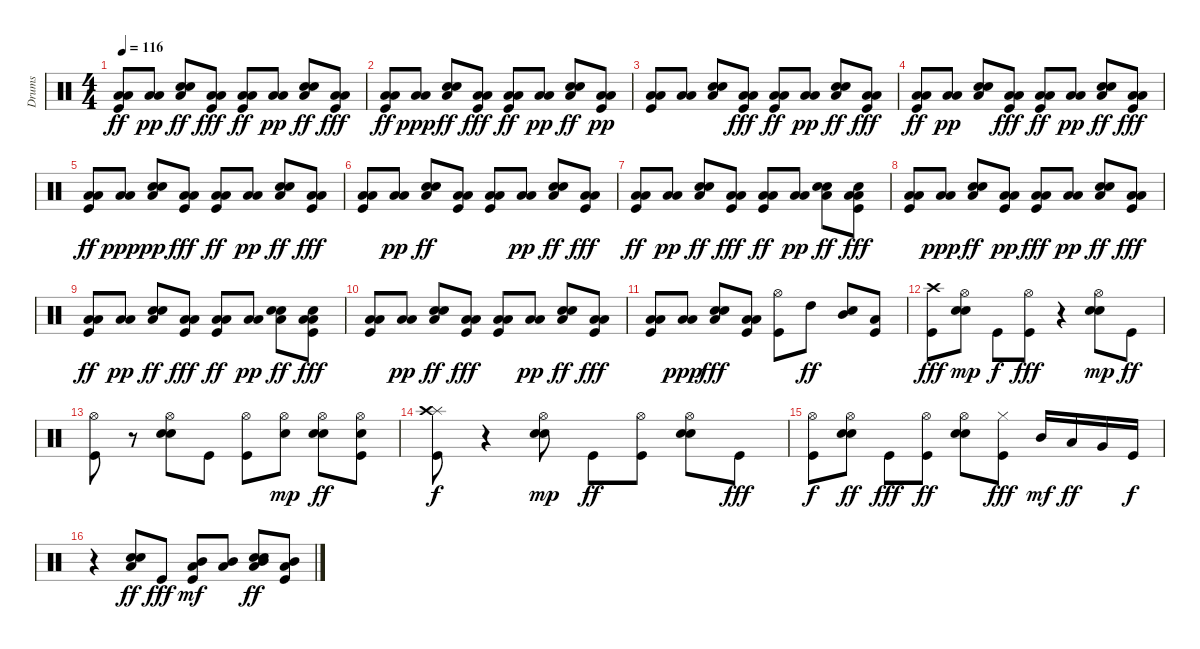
\track ("Drums" "Drums") {instrument percussion}
\staff {score}
\articulation defaults
\ts (4 4)
\tempo 116
\clef neutral
\ks c
("Low Tom (hit)" "Low Floor Tom (hit)" "Kick (hit)").8{dy ff} ("Low Tom (hit)" "Low Floor Tom (hit)").8{dy pp} ("Low Floor Tom (hit)" "Hand Clap (hit)" "Snare (hit) 2").8{dy ff} ("Low Tom (hit)" "Low Floor Tom (hit)" "Kick (hit)").8{dy fff} ("Low Tom (hit)" "Low Floor Tom (hit)" "Kick (hit)").8{dy ff} ("Low Floor Tom (hit)" "Low Tom (hit)").8{dy pp} ("Low Floor Tom (hit)" "Hand Clap (hit)" "Snare (hit) 2").8{dy ff} ("Low Tom (hit)" "Low Floor Tom (hit)" "Kick (hit)").8{dy fff} |
("Low Tom (hit)" "Low Floor Tom (hit)" "Kick (hit)").8{dy ff} ("Low Floor Tom (hit)" "Low Tom (hit)").8{dy ppp} ("Snare (hit) 2" "Low Floor Tom (hit)" "Hand Clap (hit)").8{dy ff} ("Low Tom (hit)" "Low Floor Tom (hit)" "Kick (hit)").8{dy fff} ("Low Tom (hit)" "Low Floor Tom (hit)" "Kick (hit)").8{dy ff} ("Low Tom (hit)" "Low Floor Tom (hit)").8{dy pp} ("Snare (hit) 2" "Low Floor Tom (hit)" "Hand Clap (hit)").8{dy ff} ("Kick (hit)" "Low Tom (hit)" "Low Floor Tom (hit)").8{dy pp} |
("Kick (hit)" "Low Tom (hit)" "Low Floor Tom (hit)").8 ("Low Tom (hit)" "Low Floor Tom (hit)").8 ("Hand Clap (hit)" "Snare (hit) 2" "Low Floor Tom (hit)").8 ("Low Tom (hit)" "Low Floor Tom (hit)" "Kick (hit)").8{dy fff} ("Low Tom (hit)" "Low Floor Tom (hit)" "Kick (hit)").8{dy ff} ("Low Tom (hit)" "Low Floor Tom (hit)").8{dy pp} ("Low Floor Tom (hit)" "Hand Clap (hit)" "Snare (hit) 2").8{dy ff} ("Low Tom (hit)" "Low Floor Tom (hit)" "Kick (hit)").8{dy fff} |
("Low Tom (hit)" "Low Floor Tom (hit)" "Kick (hit)").8{dy ff} ("Low Tom (hit)" "Low Floor Tom (hit)").8{dy pp} ("Hand Clap (hit)" "Snare (hit) 2" "Low Floor Tom (hit)").8 ("Low Tom (hit)" "Low Floor Tom (hit)" "Kick (hit)").8{dy fff} ("Low Tom (hit)" "Low Floor Tom (hit)" "Kick (hit)").8{dy ff} ("Low Floor Tom (hit)" "Low Tom (hit)").8{dy pp} ("Low Floor Tom (hit)" "Hand Clap (hit)" "Snare (hit) 2").8{dy ff} ("Low Tom (hit)" "Low Floor Tom (hit)" "Kick (hit)").8{dy fff} |
("Low Tom (hit)" "Low Floor Tom (hit)" "Kick (hit)").8{dy ff} ("Low Floor Tom (hit)" "Low Tom (hit)").8{dy ppp} ("Hand Clap (hit)" "Snare (hit) 2" "Low Floor Tom (hit)").8{dy pp} ("Low Tom (hit)" "Low Floor Tom (hit)" "Kick (hit)").8{dy fff} ("Low Tom (hit)" "Low Floor Tom (hit)" "Kick (hit)").8{dy ff} ("Low Tom (hit)" "Low Floor Tom (hit)").8{dy pp} ("Low Floor Tom (hit)" "Hand Clap (hit)" "Snare (hit) 2").8{dy ff} ("Low Tom (hit)" "Low Floor Tom (hit)" "Kick (hit)").8{dy fff} |
("Low Tom (hit)" "Low Floor Tom (hit)" "Kick (hit)").8 ("Low Tom (hit)" "Low Floor Tom (hit)").8{dy pp} ("Snare (hit) 2" "Low Floor Tom (hit)" "Hand Clap (hit)").8{dy ff} ("Low Tom (hit)" "Low Floor Tom (hit)" "Kick (hit)").8 ("Low Tom (hit)" "Low Floor Tom (hit)" "Kick (hit)").8 ("Low Tom (hit)" "Low Floor Tom (hit)").8{dy pp} ("Low Floor Tom (hit)" "Hand Clap (hit)" "Snare (hit) 2").8{dy ff} ("Low Tom (hit)" "Low Floor Tom (hit)" "Kick (hit)").8{dy fff} |
("Low Tom (hit)" "Low Floor Tom (hit)" "Kick (hit)").8{dy ff} ("Low Tom (hit)" "Low Floor Tom (hit)").8{dy pp} ("Snare (hit) 2" "Low Floor Tom (hit)" "Hand Clap (hit)").8{dy ff} ("Low Tom (hit)" "Low Floor Tom (hit)" "Kick (hit)").8{dy fff} ("Low Tom (hit)" "Low Floor Tom (hit)" "Kick (hit)").8{dy ff} ("Low Floor Tom (hit)" "Low Tom (hit)").8{dy pp} ("Low Floor Tom (hit)" "Hand Clap (hit)" "Snare (hit) 2").8{dy ff} ("Snare (hit) 2" "Low Tom (hit)" "Low Floor Tom (hit)" "Kick (hit)").8{dy fff} |
("Low Tom (hit)" "Low Floor Tom (hit)" "Kick (hit)").8 ("Low Floor Tom (hit)" "Low Tom (hit)").8{dy ppp} ("Snare (hit) 2" "Low Floor Tom (hit)" "Hand Clap (hit)").8{dy ff} ("Kick (hit)" "Low Tom (hit)" "Low Floor Tom (hit)").8{dy pp} ("Low Tom (hit)" "Low Floor Tom (hit)" "Kick (hit)").8{dy fff} ("Low Tom (hit)" "Low Floor Tom (hit)").8{dy pp} ("Snare (hit) 2" "Low Floor Tom (hit)" "Hand Clap (hit)").8{dy ff} ("Low Tom (hit)" "Low Floor Tom (hit)" "Kick (hit)").8{dy fff} |
("Low Tom (hit)" "Low Floor Tom (hit)" "Kick (hit)").8{dy ff} ("Low Tom (hit)" "Low Floor Tom (hit)").8{dy pp} ("Snare (hit) 2" "Low Floor Tom (hit)" "Hand Clap (hit)").8{dy ff} ("Low Tom (hit)" "Low Floor Tom (hit)" "Kick (hit)").8{dy fff} ("Low Tom (hit)" "Low Floor Tom (hit)" "Kick (hit)").8{dy ff} ("Low Tom (hit)" "Low Floor Tom (hit)").8{dy pp} ("Low Floor Tom (hit)" "Hand Clap (hit)" "Snare (hit) 2").8{dy ff} ("Snare (hit) 2" "Low Tom (hit)" "Low Floor Tom (hit)" "Kick (hit)").8{dy fff} |
("Low Tom (hit)" "Low Floor Tom (hit)" "Kick (hit)").8 ("Low Tom (hit)" "Low Floor Tom (hit)").8{dy pp} ("Snare (hit) 2" "Low Floor Tom (hit)" "Hand Clap (hit)").8{dy ff} ("Low Tom (hit)" "Low Floor Tom (hit)" "Kick (hit)").8{dy fff} ("Low Tom (hit)" "Low Floor Tom (hit)" "Kick (hit)").8 ("Low Floor Tom (hit)" "Low Tom (hit)").8{dy pp} ("Snare (hit) 2" "Low Floor Tom (hit)" "Hand Clap (hit)").8{dy ff} ("Low Tom (hit)" "Low Floor Tom (hit)" "Kick (hit)").8{dy fff} |
("Low Tom (hit)" "Low Floor Tom (hit)" "Kick (hit)").8 ("Low Floor Tom (hit)" "Low Tom (hit)").8{dy ppp} ("Snare (hit) 2" "Low Floor Tom (hit)" "Hand Clap (hit)").8{dy fff} ("Low Tom (hit)" "Low Floor Tom (hit)" "Kick (hit)").8 ("Hi-Hat (open)" "Kick (hit)").8 "High Tom (hit)".8{dy ff} ("Mid Tom (hit)" "Hand Clap (hit)").8 ("Low Tom (hit)" "Kick (hit)").8 |
("Kick (hit)" "Crash high (hit)").8{dy fff} ("Snare (hit) 2" "Hand Clap (hit)" "Hi-Hat (open)").8{dy mp} "Kick (hit)".8{dy f} ("Hi-Hat (open)" "Kick (hit)").8{dy fff} r.4 ("Snare (hit) 2" "Hand Clap (hit)" "Hi-Hat (open)").8{dy mp} "Kick (hit)".8{dy ff} |
("Hi-Hat (open)" "Kick (hit)").8 r.8 ("Snare (hit) 2" "Hi-Hat (open)" "Hand Clap (hit)").8 "Kick (hit)".8 ("Hi-Hat (open)" "Kick (hit)").8 ("Snare (hit) 2" "Hi-Hat (open)").8{dy mp} ("Snare (hit) 2" "Hi-Hat (open)" "Hand Clap (hit)").8{dy ff} ("Hi-Hat (open)" "Kick (hit)" "Snare (hit) 2").8 |
("Splash (hit)" "Crash high (hit)" "Kick (hit)").8{dy f} r.4 ("Hand Clap (hit)" "Snare (hit) 2" "Hi-Hat (open)").8{dy mp} "Kick (hit)".8{dy ff} ("Hi-Hat (open)" "Kick (hit)").8 ("Hi-Hat (open)" "Hand Clap (hit)" "Snare (hit) 2").8 "Kick (hit)".8{dy fff} |
("Hi-Hat (open)" "Kick (hit)").8{dy f} ("Hi-Hat (open)" "Hand Clap (hit)" "Snare (hit) 2").8{dy ff} "Kick (hit)".8{dy fff} ("Hi-Hat (open)" "Kick (hit)").8{dy ff} ("Hi-Hat (open)" "Hand Clap (hit)" "Snare (hit) 2").8 ("Hi-Hat (closed)" "Kick (hit)").8{dy fff} "Mid Tom (hit)".16{dy mf} "Low Tom (hit)".16{dy ff} "Very Low Tom (hit)".16 "Kick (hit)".16{dy f} |
r.4 ("Hand Clap (hit)" "Snare (hit) 2" "Low Tom (hit)").8{dy ff} "Kick (hit)".8{dy fff} ("Kick (hit)" "Mid Tom (hit)" "Low Tom (hit)").8{dy mf} ("Low Tom (hit)" "Mid Tom (hit)").8 ("Hand Clap (hit)" "Snare (hit) 2" "Mid Tom (hit)" "Low Tom (hit)").8{dy ff} ("Kick (hit)" "Low Tom (hit)" "Mid Tom (hit)").8
